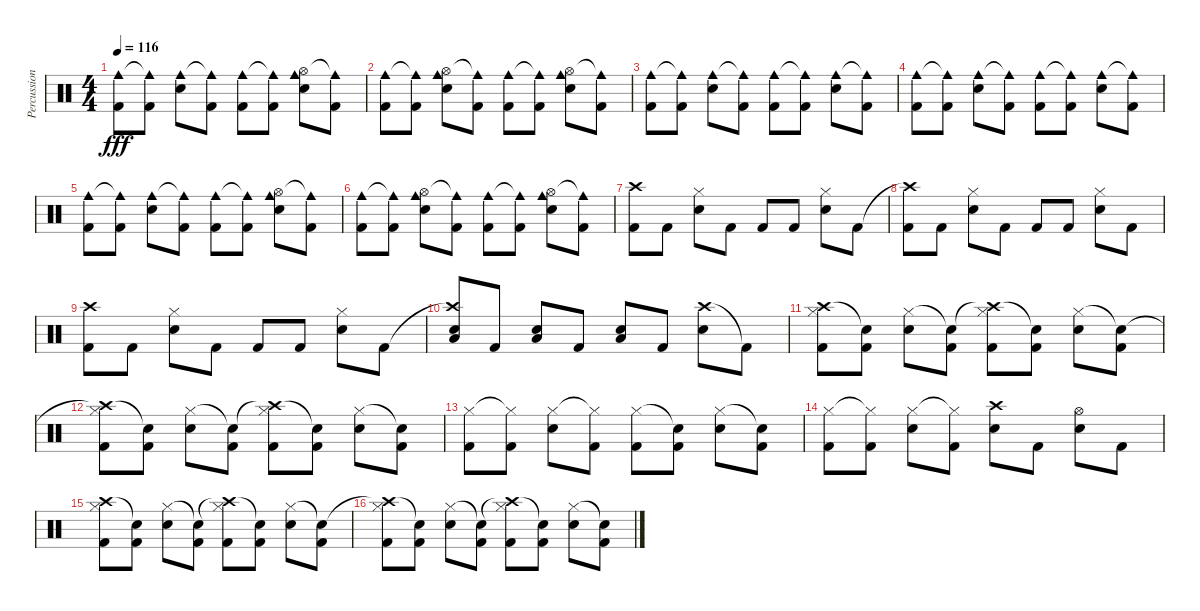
\track ("Percussion" "Percussion") {instrument percussion}
\staff {score}
\articulation defaults
\ts (4 4)
\tempo 116
\clef neutral
\ks c
("Cowbell medium (hit)" "Kick (hit) 2").8{dy fff} ("Cowbell medium (hit)"{t} "Kick (hit) 2").8 ("Cowbell medium (hit)" "Electric Snare (hit)").8 ("Cowbell medium (hit)"{t} "Kick (hit) 2").8 ("Cowbell medium (hit)" "Kick (hit) 2").8 ("Cowbell medium (hit)"{t} "Kick (hit) 2").8 ("Hi-Hat (open)" "Cowbell medium (hit)" "Electric Snare (hit)").8 ("Cowbell medium (hit)"{t} "Kick (hit) 2").8 |
("Cowbell medium (hit)" "Kick (hit) 2").8 ("Cowbell medium (hit)"{t} "Kick (hit) 2").8 ("Hi-Hat (open)" "Cowbell medium (hit)" "Electric Snare (hit)").8 ("Cowbell medium (hit)"{t} "Kick (hit) 2").8 ("Cowbell medium (hit)" "Kick (hit) 2").8 ("Cowbell medium (hit)"{t} "Kick (hit) 2").8 ("Hi-Hat (open)" "Cowbell medium (hit)" "Electric Snare (hit)").8 ("Cowbell medium (hit)"{t} "Kick (hit) 2").8 |
("Cowbell medium (hit)" "Kick (hit) 2").8 ("Cowbell medium (hit)"{t} "Kick (hit) 2").8 ("Cowbell medium (hit)" "Electric Snare (hit)").8 ("Cowbell medium (hit)"{t} "Kick (hit) 2").8 ("Cowbell medium (hit)" "Kick (hit) 2").8 ("Cowbell medium (hit)"{t} "Kick (hit) 2").8 ("Cowbell medium (hit)" "Electric Snare (hit)").8 ("Cowbell medium (hit)"{t} "Kick (hit) 2").8 |
("Cowbell medium (hit)" "Kick (hit) 2").8 ("Cowbell medium (hit)"{t} "Kick (hit) 2").8 ("Cowbell medium (hit)" "Electric Snare (hit)").8 ("Cowbell medium (hit)"{t} "Kick (hit) 2").8 ("Cowbell medium (hit)" "Kick (hit) 2").8 ("Cowbell medium (hit)"{t} "Kick (hit) 2").8 ("Cowbell medium (hit)" "Electric Snare (hit)").8 ("Cowbell medium (hit)"{t} "Kick (hit) 2").8 |
("Cowbell medium (hit)" "Kick (hit) 2").8 ("Cowbell medium (hit)"{t} "Kick (hit) 2").8 ("Cowbell medium (hit)" "Electric Snare (hit)").8 ("Cowbell medium (hit)"{t} "Kick (hit) 2").8 ("Cowbell medium (hit)" "Kick (hit) 2").8 ("Cowbell medium (hit)"{t} "Kick (hit) 2").8 ("Hi-Hat (open)" "Cowbell medium (hit)" "Electric Snare (hit)").8 ("Cowbell medium (hit)"{t} "Kick (hit) 2").8 |
("Cowbell medium (hit)" "Kick (hit) 2").8 ("Cowbell medium (hit)"{t} "Kick (hit) 2").8 ("Hi-Hat (open)" "Cowbell medium (hit)" "Electric Snare (hit)").8 ("Cowbell medium (hit)"{t} "Kick (hit) 2").8 ("Cowbell medium (hit)" "Kick (hit) 2").8 ("Cowbell medium (hit)"{t} "Kick (hit) 2").8 ("Hi-Hat (open)" "Cowbell medium (hit)" "Electric Snare (hit)").8 ("Cowbell medium (hit)"{t} "Kick (hit) 2").8 |
("Crash high (hit)" "Kick (hit) 2").8 "Kick (hit) 2".8 ("Hi-Hat (closed)" "Electric Snare (hit)").8 "Kick (hit) 2".8 "Kick (hit) 2".8 "Kick (hit) 2".8 ("Hi-Hat (closed)" "Electric Snare (hit)").8 "Kick (hit) 2".8 |
("Crash high (hit)"{t} "Kick (hit) 2").8 "Kick (hit) 2".8 ("Hi-Hat (closed)" "Electric Snare (hit)").8 "Kick (hit) 2".8 "Kick (hit) 2".8 "Kick (hit) 2".8 ("Hi-Hat (closed)" "Electric Snare (hit)").8 "Kick (hit) 2".8 |
("Crash high (hit)" "Kick (hit) 2").8 "Kick (hit) 2".8 ("Hi-Hat (closed)" "Electric Snare (hit)").8 "Kick (hit) 2".8 "Kick (hit) 2".8 "Kick (hit) 2".8 ("Hi-Hat (closed)" "Electric Snare (hit)").8 "Kick (hit) 2".8 |
("Crash high (hit)"{t} "Electric Snare (hit)" "Low Floor Tom (hit)").8 "Kick (hit) 2".8 ("Electric Snare (hit)" "Low Floor Tom (hit)").8 "Kick (hit) 2".8 ("Electric Snare (hit)" "Low Floor Tom (hit)").8 "Kick (hit) 2".8 ("Crash high (hit)" "Electric Snare (hit)").8 "Kick (hit) 2"{t}.8 |
("Crash high (hit)" "Hi-Hat (closed)" "Kick (hit) 2").8 ("Snare (hit)"{t} "Kick (hit) 2").8 ("Hi-Hat (closed)" "Electric Snare (hit)").8 ("Snare (hit)"{t} "Kick (hit) 2").8 ("Crash high (hit)"{t} "Hi-Hat (closed)" "Kick (hit) 2").8 ("Snare (hit)"{t} "Kick (hit) 2").8 ("Hi-Hat (closed)" "Electric Snare (hit)").8 ("Snare (hit)"{t} "Kick (hit) 2").8 |
("Crash high (hit)"{t} "Hi-Hat (closed)" "Kick (hit) 2").8 ("Snare (hit)"{t} "Kick (hit) 2").8 ("Hi-Hat (closed)" "Electric Snare (hit)").8 ("Snare (hit)"{t} "Kick (hit) 2").8 ("Crash high (hit)"{t} "Hi-Hat (closed)" "Kick (hit) 2").8 ("Snare (hit)"{t} "Kick (hit) 2").8 ("Hi-Hat (closed)" "Electric Snare (hit)").8 ("Snare (hit)"{t} "Kick (hit) 2").8 |
("Hi-Hat (closed)" "Kick (hit) 2").8 ("Hi-Hat (closed)"{t} "Kick (hit) 2").8 ("Hi-Hat (closed)" "Electric Snare (hit)").8 ("Hi-Hat (closed)"{t} "Kick (hit) 2").8 ("Hi-Hat (closed)" "Kick (hit) 2").8 ("Snare (hit)"{t} "Kick (hit) 2").8 ("Hi-Hat (closed)" "Electric Snare (hit)").8 ("Snare (hit)"{t} "Kick (hit) 2").8 |
("Hi-Hat (closed)" "Kick (hit) 2").8 ("Hi-Hat (closed)"{t} "Kick (hit) 2").8 ("Hi-Hat (closed)" "Electric Snare (hit)").8 ("Hi-Hat (closed)"{t} "Kick (hit) 2").8 ("Crash high (hit)" "Electric Snare (hit)").8 "Kick (hit) 2".8 ("Hi-Hat (open)" "Electric Snare (hit)").8 "Kick (hit) 2".8 |
("Crash high (hit)" "Hi-Hat (closed)" "Kick (hit) 2").8 ("Snare (hit)"{t} "Kick (hit) 2").8 ("Hi-Hat (closed)" "Electric Snare (hit)").8 ("Snare (hit)"{t} "Kick (hit) 2").8 ("Crash high (hit)"{t} "Hi-Hat (closed)" "Kick (hit) 2").8 ("Snare (hit)"{t} "Kick (hit) 2").8 ("Hi-Hat (closed)" "Electric Snare (hit)").8 ("Snare (hit)"{t} "Kick (hit) 2").8 |
("Crash high (hit)"{t} "Hi-Hat (closed)" "Kick (hit) 2").8 ("Snare (hit)"{t} "Kick (hit) 2").8 ("Hi-Hat (closed)" "Electric Snare (hit)").8 ("Snare (hit)"{t} "Kick (hit) 2").8 ("Crash high (hit)"{t} "Hi-Hat (closed)" "Kick (hit) 2").8 ("Snare (hit)"{t} "Kick (hit) 2").8 ("Hi-Hat (closed)" "Electric Snare (hit)").8 ("Snare (hit)"{t} "Kick (hit) 2").8
